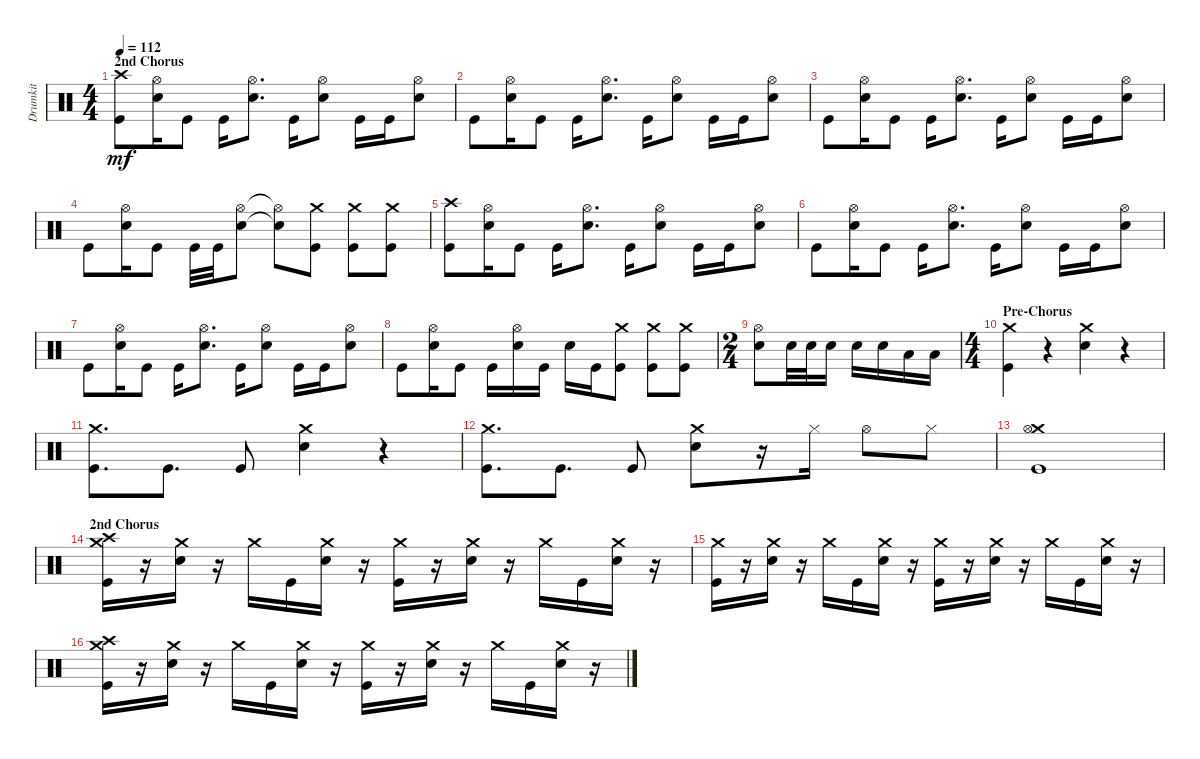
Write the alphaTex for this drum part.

\track ("Drumkit" "Drumkit") {instrument percussion}
\staff {score}
\articulation defaults
\ts (4 4)
\section ("" "2nd Chorus")
\tempo 112
\clef neutral
\ks c
("Kick (hit)" "Crash high (hit)").8{dy mf} ("Snare (hit) 2" "Hi-Hat (open)").16 "Kick (hit)".8 "Kick (hit)".16 ("Snare (hit) 2" "Hi-Hat (open)").8{d} "Kick (hit)".16 ("Snare (hit) 2" "Hi-Hat (open)").8 "Kick (hit)".16 "Kick (hit)".16 ("Snare (hit) 2" "Hi-Hat (open)").8 |
"Kick (hit)".8 ("Snare (hit) 2" "Hi-Hat (open)").16 "Kick (hit)".8 "Kick (hit)".16 ("Snare (hit) 2" "Hi-Hat (open)").8{d} "Kick (hit)".16 ("Snare (hit) 2" "Hi-Hat (open)").8 "Kick (hit)".16 "Kick (hit)".16 ("Snare (hit) 2" "Hi-Hat (open)").8 |
"Kick (hit)".8 ("Snare (hit) 2" "Hi-Hat (open)").16 "Kick (hit)".8 "Kick (hit)".16 ("Snare (hit) 2" "Hi-Hat (open)").8{d} "Kick (hit)".16 ("Snare (hit) 2" "Hi-Hat (open)").8 "Kick (hit)".16 "Kick (hit)".16 ("Snare (hit) 2" "Hi-Hat (open)").8 |
"Kick (hit)".8 ("Snare (hit) 2" "Hi-Hat (open)").16 "Kick (hit)".8 "Kick (hit)".32 "Kick (hit)".32 ("Snare (hit) 2" "Hi-Hat (open)").8 ("Snare (hit) 2"{t} "Hi-Hat (open)"{t}).8 ("Kick (hit)" "Crash medium (hit)").8 ("Kick (hit)" "Crash medium (hit)").8 ("Kick (hit)" "Crash medium (hit)").8 |
("Kick (hit)" "Crash high (hit)").8 ("Snare (hit) 2" "Hi-Hat (open)").16 "Kick (hit)".8 "Kick (hit)".16 ("Snare (hit) 2" "Hi-Hat (open)").8{d} "Kick (hit)".16 ("Snare (hit) 2" "Hi-Hat (open)").8 "Kick (hit)".16 "Kick (hit)".16 ("Snare (hit) 2" "Hi-Hat (open)").8 |
"Kick (hit)".8 ("Snare (hit) 2" "Hi-Hat (open)").16 "Kick (hit)".8 "Kick (hit)".16 ("Snare (hit) 2" "Hi-Hat (open)").8{d} "Kick (hit)".16 ("Snare (hit) 2" "Hi-Hat (open)").8 "Kick (hit)".16 "Kick (hit)".16 ("Snare (hit) 2" "Hi-Hat (open)").8 |
"Kick (hit)".8 ("Snare (hit) 2" "Hi-Hat (open)").16 "Kick (hit)".8 "Kick (hit)".16 ("Snare (hit) 2" "Hi-Hat (open)").8{d} "Kick (hit)".16 ("Snare (hit) 2" "Hi-Hat (open)").8 "Kick (hit)".16 "Kick (hit)".16 ("Snare (hit) 2" "Hi-Hat (open)").8 |
"Kick (hit)".8 ("Snare (hit) 2" "Hi-Hat (open)").16 "Kick (hit)".8 "Kick (hit)".16 ("Snare (hit) 2" "Hi-Hat (open)").16 "Kick (hit)".16 "Snare (hit) 2".16 "Kick (hit)".16 ("Kick (hit)" "Crash medium (hit)").8 ("Kick (hit)" "Crash medium (hit)").8 ("Kick (hit)" "Crash medium (hit)").8 |
\ts (2 4)
("Snare (hit) 2" "Hi-Hat (open)").8 "Snare (hit) 2".32 "Snare (hit) 2".32 "Snare (hit) 2".16 "Snare (hit) 2".16 "Snare (hit) 2".16 "Low Tom (hit)".16 "Low Tom (hit)".16 |
\ts (4 4)
\section ("" "Pre-Chorus")
("Kick (hit)" "Crash medium (hit)").4 r.4 ("Snare (hit) 2" "Crash medium (hit)").4 r.4 |
("Kick (hit)" "Crash medium (hit)").8{d} "Kick (hit)".8{d} "Kick (hit)".8 ("Snare (hit) 2" "Crash medium (hit)").4 r.4 |
("Kick (hit)" "Crash medium (hit)").8{d} "Kick (hit)".8{d} "Kick (hit)".8 ("Crash medium (hit)" "Snare (hit) 2").8 r.16 "Hi-Hat (closed)".16 "Hi-Hat (open)".8 "Hi-Hat (closed)".8 |
("Kick (hit)" "Crash medium (hit)" "Hi-Hat (open)").1 |
\section ("" "2nd Chorus")
("Kick (hit)" "Crash medium (hit)" "Crash high (hit)").16 r.16 ("Snare (hit) 2" "Crash medium (hit)").16 r.16 "Crash medium (hit)".16 "Kick (hit)".16 ("Snare (hit) 2" "Crash medium (hit)").16 r.16 ("Kick (hit)" "Crash medium (hit)").16 r.16 ("Snare (hit) 2" "Crash medium (hit)").16 r.16 "Crash medium (hit)".16 "Kick (hit)".16 ("Snare (hit) 2" "Crash medium (hit)").16 r.16 |
("Kick (hit)" "Crash medium (hit)").16 r.16 ("Snare (hit) 2" "Crash medium (hit)").16 r.16 "Crash medium (hit)".16 "Kick (hit)".16 ("Snare (hit) 2" "Crash medium (hit)").16 r.16 ("Kick (hit)" "Crash medium (hit)").16 r.16 ("Snare (hit) 2" "Crash medium (hit)").16 r.16 "Crash medium (hit)".16 "Kick (hit)".16 ("Snare (hit) 2" "Crash medium (hit)").16 r.16 |
("Kick (hit)" "Crash medium (hit)" "Crash high (hit)").16 r.16 ("Snare (hit) 2" "Crash medium (hit)").16 r.16 "Crash medium (hit)".16 "Kick (hit)".16 ("Snare (hit) 2" "Crash medium (hit)").16 r.16 ("Kick (hit)" "Crash medium (hit)").16 r.16 ("Snare (hit) 2" "Crash medium (hit)").16 r.16 "Crash medium (hit)".16 "Kick (hit)".16 ("Snare (hit) 2" "Crash medium (hit)").16 r.16
